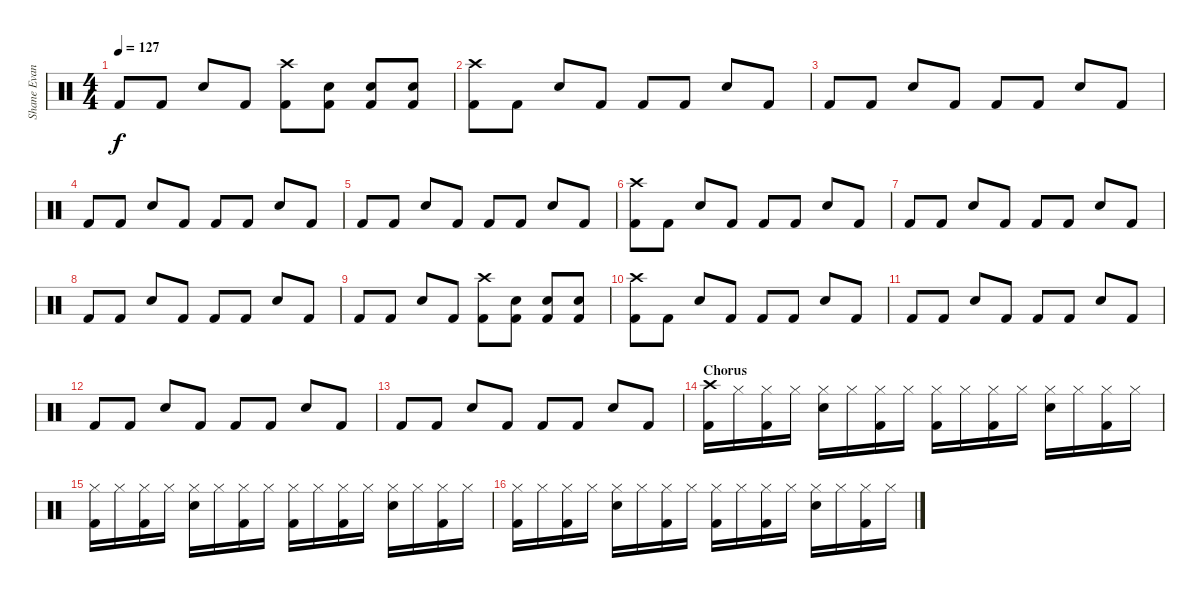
\track ("Shane Evans" "Shane Evan") {instrument percussion}
\staff {score}
\articulation defaults
\ts (4 4)
\tempo 127
\clef neutral
\ks c "Kick (hit) 2".8{dy f} "Kick (hit) 2".8 "Snare (hit) 2".8 "Kick (hit) 2".8
("Crash high (hit)" "Kick (hit) 2").8 ("Snare (hit) 2" "Kick (hit) 2").8 ("Snare (hit) 2" "Kick (hit) 2").8 ("Snare (hit) 2" "Kick (hit) 2").8 |
("Crash high (hit)" "Kick (hit) 2").8 "Kick (hit) 2".8 "Snare (hit) 2".8 "Kick (hit) 2".8 "Kick (hit) 2".8 "Kick (hit) 2".8 "Snare (hit) 2".8 "Kick (hit) 2".8 |
"Kick (hit) 2".8 "Kick (hit) 2".8 "Snare (hit) 2".8 "Kick (hit) 2".8 "Kick (hit) 2".8 "Kick (hit) 2".8 "Snare (hit) 2".8 "Kick (hit) 2".8 |
"Kick (hit) 2".8 "Kick (hit) 2".8 "Snare (hit) 2".8 "Kick (hit) 2".8 "Kick (hit) 2".8 "Kick (hit) 2".8 "Snare (hit) 2".8 "Kick (hit) 2".8 |
"Kick (hit) 2".8 "Kick (hit) 2".8 "Snare (hit) 2".8 "Kick (hit) 2".8 "Kick (hit) 2".8 "Kick (hit) 2".8 "Snare (hit) 2".8 "Kick (hit) 2".8 |
("Crash high (hit)" "Kick (hit) 2").8 "Kick (hit) 2".8 "Snare (hit) 2".8 "Kick (hit) 2".8 "Kick (hit) 2".8 "Kick (hit) 2".8 "Snare (hit) 2".8 "Kick (hit) 2".8 |
"Kick (hit) 2".8 "Kick (hit) 2".8 "Snare (hit) 2".8 "Kick (hit) 2".8 "Kick (hit) 2".8 "Kick (hit) 2".8 "Snare (hit) 2".8 "Kick (hit) 2".8 |
"Kick (hit) 2".8 "Kick (hit) 2".8 "Snare (hit) 2".8 "Kick (hit) 2".8 "Kick (hit) 2".8 "Kick (hit) 2".8 "Snare (hit) 2".8 "Kick (hit) 2".8 |
"Kick (hit) 2".8 "Kick (hit) 2".8 "Snare (hit) 2".8 "Kick (hit) 2".8 ("Crash high (hit)" "Kick (hit) 2").8 ("Snare (hit) 2" "Kick (hit) 2").8 ("Snare (hit) 2" "Kick (hit) 2").8 ("Snare (hit) 2" "Kick (hit) 2").8 |
("Crash high (hit)" "Kick (hit) 2").8 "Kick (hit) 2".8 "Snare (hit) 2".8 "Kick (hit) 2".8 "Kick (hit) 2".8 "Kick (hit) 2".8 "Snare (hit) 2".8 "Kick (hit) 2".8 |
"Kick (hit) 2".8 "Kick (hit) 2".8 "Snare (hit) 2".8 "Kick (hit) 2".8 "Kick (hit) 2".8 "Kick (hit) 2".8 "Snare (hit) 2".8 "Kick (hit) 2".8 |
"Kick (hit) 2".8 "Kick (hit) 2".8 "Snare (hit) 2".8 "Kick (hit) 2".8 "Kick (hit) 2".8 "Kick (hit) 2".8 "Snare (hit) 2".8 "Kick (hit) 2".8 |
"Kick (hit) 2".8 "Kick (hit) 2".8 "Snare (hit) 2".8 "Kick (hit) 2".8 "Kick (hit) 2".8 "Kick (hit) 2".8 "Snare (hit) 2".8 "Kick (hit) 2".8 |
\section ("" "Chorus")
("Crash high (hit)" "Kick (hit) 2").16 "Hi-Hat (closed)".16 ("Hi-Hat (closed)" "Kick (hit) 2").16 "Hi-Hat (closed)".16 ("Hi-Hat (closed)" "Snare (hit) 2").16 "Hi-Hat (closed)".16 ("Hi-Hat (closed)" "Kick (hit) 2").16 "Hi-Hat (closed)".16 ("Hi-Hat (closed)" "Kick (hit) 2").16 "Hi-Hat (closed)".16 ("Hi-Hat (closed)" "Kick (hit) 2").16 "Hi-Hat (closed)".16 ("Hi-Hat (closed)" "Snare (hit) 2").16 "Hi-Hat (closed)".16 ("Hi-Hat (closed)" "Kick (hit) 2").16 "Hi-Hat (closed)".16 |
("Hi-Hat (closed)" "Kick (hit) 2").16 "Hi-Hat (closed)".16 ("Hi-Hat (closed)" "Kick (hit) 2").16 "Hi-Hat (closed)".16 ("Hi-Hat (closed)" "Snare (hit) 2").16 "Hi-Hat (closed)".16 ("Hi-Hat (closed)" "Kick (hit) 2").16 "Hi-Hat (closed)".16 ("Hi-Hat (closed)" "Kick (hit) 2").16 "Hi-Hat (closed)".16 ("Hi-Hat (closed)" "Kick (hit) 2").16 "Hi-Hat (closed)".16 ("Hi-Hat (closed)" "Snare (hit) 2").16 "Hi-Hat (closed)".16 ("Hi-Hat (closed)" "Kick (hit) 2").16 "Hi-Hat (closed)".16 |
("Hi-Hat (closed)" "Kick (hit) 2").16 "Hi-Hat (closed)".16 ("Hi-Hat (closed)" "Kick (hit) 2").16 "Hi-Hat (closed)".16 ("Hi-Hat (closed)" "Snare (hit) 2").16 "Hi-Hat (closed)".16 ("Hi-Hat (closed)" "Kick (hit) 2").16 "Hi-Hat (closed)".16 ("Hi-Hat (closed)" "Kick (hit) 2").16 "Hi-Hat (closed)".16 ("Hi-Hat (closed)" "Kick (hit) 2").16 "Hi-Hat (closed)".16 ("Hi-Hat (closed)" "Snare (hit) 2").16 "Hi-Hat (closed)".16 ("Hi-Hat (closed)" "Kick (hit) 2").16 "Hi-Hat (closed)".16
